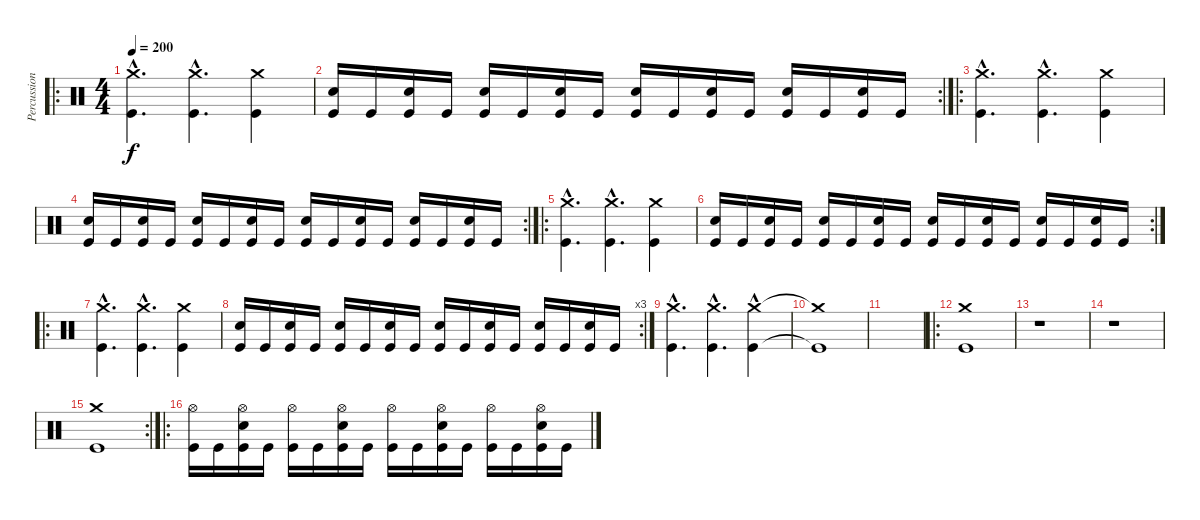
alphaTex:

\track ("Percussion" "Percussion") {instrument percussion}
\staff {score}
\articulation defaults
\ro
\ts (4 4)
\tempo 200
\clef neutral
\ks c
("Crash medium (hit)"{hac} "Kick (hit)"{hac}).4{d dy f} ("Crash medium (hit)"{hac} "Kick (hit)"{hac}).4{d} ("Crash medium (hit)" "Kick (hit)").4 |
\rc 2
("Snare (hit) 2" "Kick (hit)").16 "Kick (hit)".16 ("Snare (hit) 2" "Kick (hit)").16 "Kick (hit)".16 ("Snare (hit) 2" "Kick (hit)").16 "Kick (hit)".16 ("Snare (hit) 2" "Kick (hit)").16 "Kick (hit)".16 ("Snare (hit) 2" "Kick (hit)").16 "Kick (hit)".16 ("Snare (hit) 2" "Kick (hit)").16 "Kick (hit)".16 ("Snare (hit) 2" "Kick (hit)").16 "Kick (hit)".16 ("Snare (hit) 2" "Kick (hit)").16 "Kick (hit)".16 |
\ro
("Crash medium (hit)"{hac} "Kick (hit)"{hac}).4{d} ("Crash medium (hit)"{hac} "Kick (hit)"{hac}).4{d} ("Crash medium (hit)" "Kick (hit)").4 |
\rc 2
("Snare (hit) 2" "Kick (hit)").16 "Kick (hit)".16 ("Snare (hit) 2" "Kick (hit)").16 "Kick (hit)".16 ("Snare (hit) 2" "Kick (hit)").16 "Kick (hit)".16 ("Snare (hit) 2" "Kick (hit)").16 "Kick (hit)".16 ("Snare (hit) 2" "Kick (hit)").16 "Kick (hit)".16 ("Snare (hit) 2" "Kick (hit)").16 "Kick (hit)".16 ("Snare (hit) 2" "Kick (hit)").16 "Kick (hit)".16 ("Snare (hit) 2" "Kick (hit)").16 "Kick (hit)".16 |
\ro
("Crash medium (hit)"{hac} "Kick (hit)"{hac}).4{d} ("Crash medium (hit)"{hac} "Kick (hit)"{hac}).4{d} ("Crash medium (hit)" "Kick (hit)").4 |
\rc 2
("Snare (hit) 2" "Kick (hit)").16 "Kick (hit)".16 ("Snare (hit) 2" "Kick (hit)").16 "Kick (hit)".16 ("Snare (hit) 2" "Kick (hit)").16 "Kick (hit)".16 ("Snare (hit) 2" "Kick (hit)").16 "Kick (hit)".16 ("Snare (hit) 2" "Kick (hit)").16 "Kick (hit)".16 ("Snare (hit) 2" "Kick (hit)").16 "Kick (hit)".16 ("Snare (hit) 2" "Kick (hit)").16 "Kick (hit)".16 ("Snare (hit) 2" "Kick (hit)").16 "Kick (hit)".16 |
\ro
("Crash medium (hit)"{hac} "Kick (hit)"{hac}).4{d} ("Crash medium (hit)"{hac} "Kick (hit)"{hac}).4{d} ("Crash medium (hit)" "Kick (hit)").4 |
\rc 3
("Snare (hit) 2" "Kick (hit)").16 "Kick (hit)".16 ("Snare (hit) 2" "Kick (hit)").16 "Kick (hit)".16 ("Snare (hit) 2" "Kick (hit)").16 "Kick (hit)".16 ("Snare (hit) 2" "Kick (hit)").16 "Kick (hit)".16 ("Snare (hit) 2" "Kick (hit)").16 "Kick (hit)".16 ("Snare (hit) 2" "Kick (hit)").16 "Kick (hit)".16 ("Snare (hit) 2" "Kick (hit)").16 "Kick (hit)".16 ("Snare (hit) 2" "Kick (hit)").16 "Kick (hit)".16 |
("Crash medium (hit)"{hac} "Kick (hit)"{hac}).4{d} ("Crash medium (hit)"{hac} "Kick (hit)"{hac}).4{d} ("Crash medium (hit)"{hac} "Kick (hit)").4 |
("Crash medium (hit)"{t} "Kick (hit)"{t}).1 |
|
\ro
("Crash medium (hit)" "Kick (hit)").1 |
r.1 |
r.1 |
\rc 2
("Crash medium (hit)" "Kick (hit)").1 |
\ro
("Hi-Hat (open)" "Kick (hit)").16 "Kick (hit)".16 ("Hi-Hat (open)" "Snare (hit) 2" "Kick (hit)").16 "Kick (hit)".16 ("Hi-Hat (open)" "Kick (hit)").16 "Kick (hit)".16 ("Hi-Hat (open)" "Snare (hit) 2" "Kick (hit)").16 "Kick (hit)".16 ("Hi-Hat (open)" "Kick (hit)").16 "Kick (hit)".16 ("Hi-Hat (open)" "Snare (hit) 2" "Kick (hit)").16 "Kick (hit)".16 ("Hi-Hat (open)" "Kick (hit)").16 "Kick (hit)".16 ("Hi-Hat (open)" "Snare (hit) 2" "Kick (hit)").16 "Kick (hit)".16
